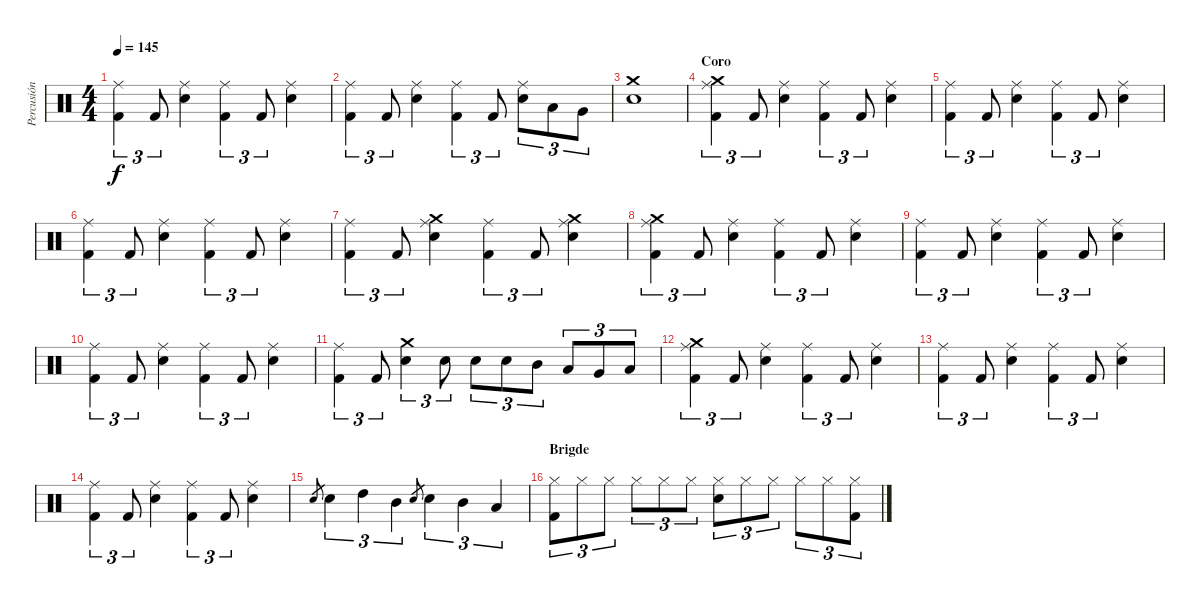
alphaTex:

\track ("Percusión" "Percusión") {instrument percussion}
\staff {score}
\articulation defaults
\ts (4 4)
\tempo 145
\clef neutral
\ks c
("Kick (hit) 2" "Ride (middle)").4{tu (3 2) dy f} "Kick (hit) 2".8{tu (3 2)} ("Snare (hit) 2" "Ride (middle)").4 ("Kick (hit) 2" "Ride (middle)").4{tu (3 2)} "Kick (hit) 2".8{tu (3 2)} ("Snare (hit) 2" "Ride (middle)").4 |
("Kick (hit) 2" "Ride (middle)").4{tu (3 2)} "Kick (hit) 2".8{tu (3 2)} ("Snare (hit) 2" "Ride (middle)").4 ("Kick (hit) 2" "Ride (middle)").4{tu (3 2)} "Kick (hit) 2".8{tu (3 2)} ("Snare (hit) 2" "Ride (middle)").8{tu (3 2)} "Low Tom (hit)".8{tu (3 2)} "Very Low Tom (hit)".8{tu (3 2)} |
("Crash medium (hit)" "Snare (hit) 2").1 |
\section ("" "Coro")
("Kick (hit) 2" "Ride (middle)" "Crash medium (hit)").4{tu (3 2)} "Kick (hit) 2".8{tu (3 2)} ("Snare (hit) 2" "Ride (middle)").4 ("Kick (hit) 2" "Ride (middle)").4{tu (3 2)} "Kick (hit) 2".8{tu (3 2)} ("Snare (hit) 2" "Ride (middle)").4 |
("Kick (hit) 2" "Ride (middle)").4{tu (3 2)} "Kick (hit) 2".8{tu (3 2)} ("Snare (hit) 2" "Ride (middle)").4 ("Kick (hit) 2" "Ride (middle)").4{tu (3 2)} "Kick (hit) 2".8{tu (3 2)} ("Snare (hit) 2" "Ride (middle)").4 |
("Kick (hit) 2" "Ride (middle)").4{tu (3 2)} "Kick (hit) 2".8{tu (3 2)} ("Snare (hit) 2" "Ride (middle)").4 ("Kick (hit) 2" "Ride (middle)").4{tu (3 2)} "Kick (hit) 2".8{tu (3 2)} ("Snare (hit) 2" "Ride (middle)").4 |
("Kick (hit) 2" "Ride (middle)").4{tu (3 2)} "Kick (hit) 2".8{tu (3 2)} ("Snare (hit) 2" "Ride (middle)" "Crash medium (hit)").4 ("Kick (hit) 2" "Ride (middle)").4{tu (3 2)} "Kick (hit) 2".8{tu (3 2)} ("Snare (hit) 2" "Ride (middle)" "Crash medium (hit)").4 |
("Kick (hit) 2" "Ride (middle)" "Crash medium (hit)").4{tu (3 2)} "Kick (hit) 2".8{tu (3 2)} ("Snare (hit) 2" "Ride (middle)").4 ("Kick (hit) 2" "Ride (middle)").4{tu (3 2)} "Kick (hit) 2".8{tu (3 2)} ("Snare (hit) 2" "Ride (middle)").4 |
("Kick (hit) 2" "Ride (middle)").4{tu (3 2)} "Kick (hit) 2".8{tu (3 2)} ("Snare (hit) 2" "Ride (middle)").4 ("Kick (hit) 2" "Ride (middle)").4{tu (3 2)} "Kick (hit) 2".8{tu (3 2)} ("Snare (hit) 2" "Ride (middle)").4 |
("Kick (hit) 2" "Ride (middle)").4{tu (3 2)} "Kick (hit) 2".8{tu (3 2)} ("Snare (hit) 2" "Ride (middle)").4 ("Kick (hit) 2" "Ride (middle)").4{tu (3 2)} "Kick (hit) 2".8{tu (3 2)} ("Snare (hit) 2" "Ride (middle)").4 |
("Kick (hit) 2" "Ride (middle)").4{tu (3 2)} "Kick (hit) 2".8{tu (3 2)} ("Snare (hit) 2" "Crash medium (hit)").4{tu (3 2)} "Snare (hit) 2".8{tu (3 2)} "Snare (hit) 2".8{tu (3 2)} "Snare (hit) 2".8{tu (3 2)} "Mid Tom (hit)".8{tu (3 2)} "Low Tom (hit)".8{tu (3 2)} "Very Low Tom (hit)".8{tu (3 2)} "Low Floor Tom (hit)".8{tu (3 2)} |
("Kick (hit) 2" "Ride (middle)" "Crash medium (hit)").4{tu (3 2)} "Kick (hit) 2".8{tu (3 2)} ("Snare (hit) 2" "Ride (middle)").4 ("Kick (hit) 2" "Ride (middle)").4{tu (3 2)} "Kick (hit) 2".8{tu (3 2)} ("Snare (hit) 2" "Ride (middle)").4 |
("Kick (hit) 2" "Ride (middle)").4{tu (3 2)} "Kick (hit) 2".8{tu (3 2)} ("Snare (hit) 2" "Ride (middle)").4 ("Kick (hit) 2" "Ride (middle)").4{tu (3 2)} "Kick (hit) 2".8{tu (3 2)} ("Snare (hit) 2" "Ride (middle)").4 |
("Kick (hit) 2" "Ride (middle)").4{tu (3 2)} "Kick (hit) 2".8{tu (3 2)} ("Snare (hit) 2" "Ride (middle)").4 ("Kick (hit) 2" "Ride (middle)").4{tu (3 2)} "Kick (hit) 2".8{tu (3 2)} ("Snare (hit) 2" "Ride (middle)").4 |
"Snare (hit) 2".8{gr} "Snare (hit) 2".4{tu (3 2)} "High Tom (hit)".4{tu (3 2)} "Mid Tom (hit)".4{tu (3 2)} "Snare (hit) 2".8{gr} "Snare (hit) 2".4{tu (3 2)} "Mid Tom (hit)".4{tu (3 2)} "Low Tom (hit)".4{tu (3 2)} |
\section ("" "Brigde")
("Hi-Hat (closed)" "Kick (hit) 2").8{tu (3 2)} "Hi-Hat (closed)".8{tu (3 2)} "Hi-Hat (closed)".8{tu (3 2)} "Hi-Hat (closed)".8{tu (3 2)} "Hi-Hat (closed)".8{tu (3 2)} "Hi-Hat (closed)".8{tu (3 2)} ("Hi-Hat (closed)" "Snare (hit) 2").8{tu (3 2)} "Hi-Hat (closed)".8{tu (3 2)} "Hi-Hat (closed)".8{tu (3 2)} "Hi-Hat (closed)".8{tu (3 2)} "Hi-Hat (closed)".8{tu (3 2)} ("Hi-Hat (closed)" "Kick (hit) 2").8{tu (3 2)}
